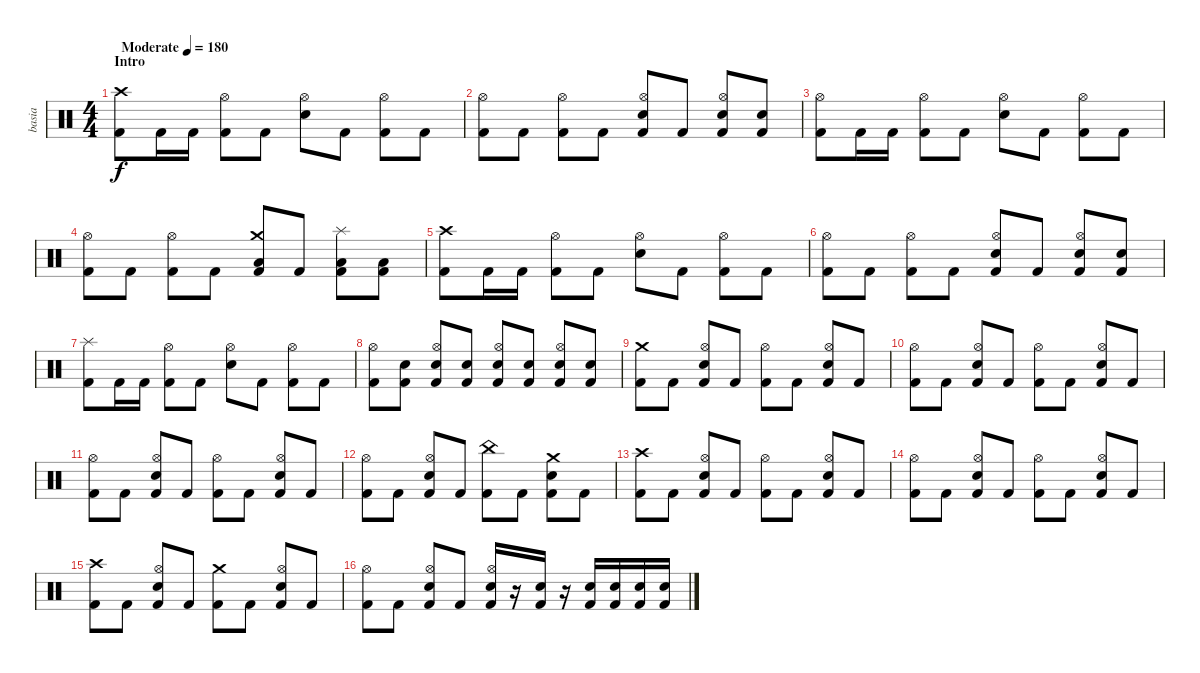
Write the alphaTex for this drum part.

\track ("basia" "basia") {instrument percussion}
\staff {score}
\articulation defaults
\ts (4 4)
\section ("" "Intro")
\tempo (180 "Moderate")
\clef neutral
\ks c
("Crash high (hit)" "Kick (hit) 2").8{dy f} "Kick (hit) 2".16 "Kick (hit) 2".16 ("Hi-Hat (open)" "Kick (hit) 2").8 "Kick (hit) 2".8 ("Hi-Hat (open)" "Snare (hit) 2").8 "Kick (hit) 2".8 ("Hi-Hat (open)" "Kick (hit) 2").8 "Kick (hit) 2".8 |
("Hi-Hat (open)" "Kick (hit) 2").8 "Kick (hit) 2".8 ("Hi-Hat (open)" "Kick (hit) 2").8 "Kick (hit) 2".8 ("Hi-Hat (open)" "Snare (hit) 2" "Kick (hit) 2").8 "Kick (hit) 2".8 ("Hi-Hat (open)" "Snare (hit) 2" "Kick (hit) 2").8 ("Snare (hit) 2" "Kick (hit) 2").8 |
("Hi-Hat (open)" "Kick (hit) 2").8 "Kick (hit) 2".16 "Kick (hit) 2".16 ("Hi-Hat (open)" "Kick (hit) 2").8 "Kick (hit) 2".8 ("Hi-Hat (open)" "Snare (hit) 2").8 "Kick (hit) 2".8 ("Hi-Hat (open)" "Kick (hit) 2").8 "Kick (hit) 2".8 |
("Hi-Hat (open)" "Kick (hit) 2").8 "Kick (hit) 2".8 ("Hi-Hat (open)" "Kick (hit) 2").8 "Kick (hit) 2".8 ("Crash medium (hit)" "Low Tom (hit)" "Kick (hit) 2").8 "Kick (hit) 2".8 ("Splash (hit)" "Low Tom (hit)" "Kick (hit) 2").8 ("Low Tom (hit)" "Kick (hit) 2").8 |
("Crash high (hit)" "Kick (hit) 2").8 "Kick (hit) 2".16 "Kick (hit) 2".16 ("Hi-Hat (open)" "Kick (hit) 2").8 "Kick (hit) 2".8 ("Hi-Hat (open)" "Snare (hit) 2").8 "Kick (hit) 2".8 ("Hi-Hat (open)" "Kick (hit) 2").8 "Kick (hit) 2".8 |
("Hi-Hat (open)" "Kick (hit) 2").8 "Kick (hit) 2".8 ("Hi-Hat (open)" "Kick (hit) 2").8 "Kick (hit) 2".8 ("Hi-Hat (open)" "Snare (hit) 2" "Kick (hit) 2").8 "Kick (hit) 2".8 ("Hi-Hat (open)" "Snare (hit) 2" "Kick (hit) 2").8 ("Snare (hit) 2" "Kick (hit) 2").8 |
("Splash (hit)" "Kick (hit) 2").8 "Kick (hit) 2".16 "Kick (hit) 2".16 ("Hi-Hat (open)" "Kick (hit) 2").8 "Kick (hit) 2".8 ("Hi-Hat (open)" "Snare (hit) 2").8 "Kick (hit) 2".8 ("Hi-Hat (open)" "Kick (hit) 2").8 "Kick (hit) 2".8 |
("Hi-Hat (open)" "Kick (hit) 2").8 ("Snare (hit) 2" "Kick (hit) 2").8 ("Hi-Hat (open)" "Snare (hit) 2" "Kick (hit) 2").8 ("Snare (hit) 2" "Kick (hit) 2").8 ("Hi-Hat (open)" "Snare (hit) 2" "Kick (hit) 2").8 ("Snare (hit) 2" "Kick (hit) 2").8 ("Hi-Hat (open)" "Snare (hit) 2" "Kick (hit) 2").8 ("Snare (hit) 2" "Kick (hit) 2").8 |
("Crash medium (hit)" "Kick (hit) 2").8 "Kick (hit) 2".8 ("Hi-Hat (open)" "Snare (hit) 2" "Kick (hit) 2").8 "Kick (hit) 2".8 ("Hi-Hat (open)" "Kick (hit) 2").8 "Kick (hit) 2".8 ("Hi-Hat (open)" "Snare (hit) 2" "Kick (hit) 2").8 "Kick (hit) 2".8 |
("Hi-Hat (open)" "Kick (hit) 2").8 "Kick (hit) 2".8 ("Hi-Hat (open)" "Snare (hit) 2" "Kick (hit) 2").8 "Kick (hit) 2".8 ("Hi-Hat (open)" "Kick (hit) 2").8 "Kick (hit) 2".8 ("Hi-Hat (open)" "Snare (hit) 2" "Kick (hit) 2").8 "Kick (hit) 2".8 |
("Hi-Hat (open)" "Kick (hit) 2").8 "Kick (hit) 2".8 ("Hi-Hat (open)" "Snare (hit) 2" "Kick (hit) 2").8 "Kick (hit) 2".8 ("Hi-Hat (open)" "Kick (hit) 2").8 "Kick (hit) 2".8 ("Hi-Hat (open)" "Snare (hit) 2" "Kick (hit) 2").8 "Kick (hit) 2".8 |
("Hi-Hat (open)" "Kick (hit) 2").8 "Kick (hit) 2".8 ("Hi-Hat (open)" "Snare (hit) 2" "Kick (hit) 2").8 "Kick (hit) 2".8 ("China (hit)" "Kick (hit) 2").8 "Kick (hit) 2".8 ("Crash medium (hit)" "Snare (hit) 2" "Kick (hit) 2").8 "Kick (hit) 2".8 |
("Crash high (hit)" "Kick (hit) 2").8 "Kick (hit) 2".8 ("Hi-Hat (open)" "Snare (hit) 2" "Kick (hit) 2").8 "Kick (hit) 2".8 ("Hi-Hat (open)" "Kick (hit) 2").8 "Kick (hit) 2".8 ("Hi-Hat (open)" "Snare (hit) 2" "Kick (hit) 2").8 "Kick (hit) 2".8 |
("Hi-Hat (open)" "Kick (hit) 2").8 "Kick (hit) 2".8 ("Hi-Hat (open)" "Snare (hit) 2" "Kick (hit) 2").8 "Kick (hit) 2".8 ("Hi-Hat (open)" "Kick (hit) 2").8 "Kick (hit) 2".8 ("Hi-Hat (open)" "Snare (hit) 2" "Kick (hit) 2").8 "Kick (hit) 2".8 |
("Crash high (hit)" "Kick (hit) 2").8 "Kick (hit) 2".8 ("Hi-Hat (open)" "Snare (hit) 2" "Kick (hit) 2").8 "Kick (hit) 2".8 ("Crash medium (hit)" "Kick (hit) 2").8 "Kick (hit) 2".8 ("Hi-Hat (open)" "Snare (hit) 2" "Kick (hit) 2").8 "Kick (hit) 2".8 |
("Hi-Hat (open)" "Kick (hit) 2").8 "Kick (hit) 2".8 ("Hi-Hat (open)" "Snare (hit) 2" "Kick (hit) 2").8 "Kick (hit) 2".8 ("Hi-Hat (open)" "Snare (hit) 2" "Kick (hit) 2").16 r.16 ("Snare (hit) 2" "Kick (hit) 2").16 r.16 ("Snare (hit) 2" "Kick (hit) 2").16 ("Snare (hit) 2" "Kick (hit) 2").16 ("Snare (hit) 2" "Kick (hit) 2").16 ("Snare (hit) 2" "Kick (hit) 2").16
